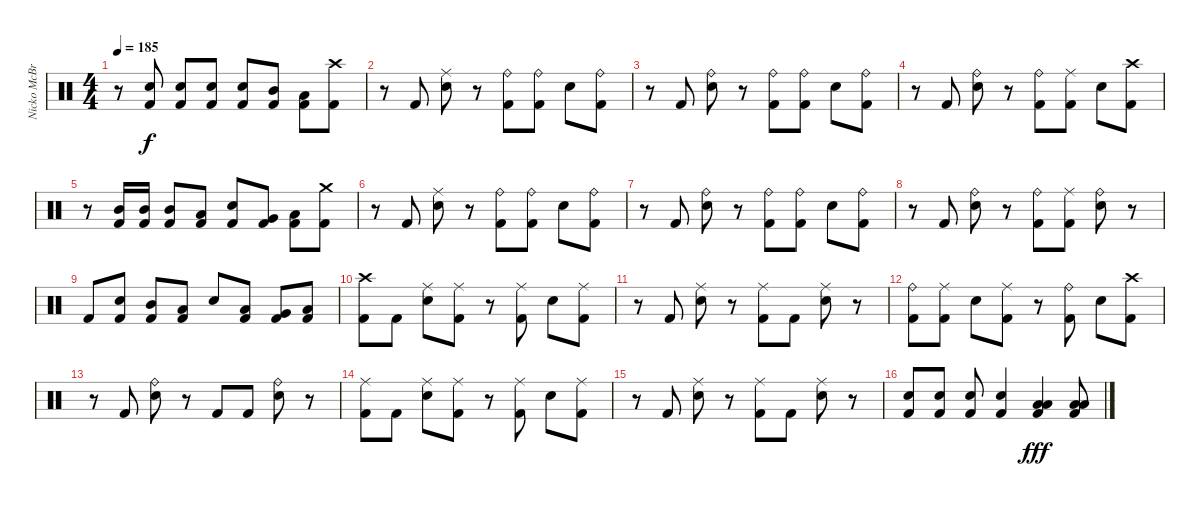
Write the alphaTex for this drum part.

\track ("Nicko McBrain" "Nicko McBr") {instrument percussion}
\staff {score}
\articulation defaults
\ts (4 4)
\tempo 185
\clef neutral
\ks c
r.8{dy f} ("Snare (hit) 2" "Kick (hit) 2").8 ("Snare (hit) 2" "Kick (hit) 2").8 ("Snare (hit) 2" "Kick (hit) 2").8 ("Snare (hit) 2" "Kick (hit) 2").8 ("Mid Tom (hit)" "Kick (hit) 2").8 ("Low Tom (hit)" "Kick (hit) 2").8 ("Crash high (hit)" "Kick (hit) 2").8 |
r.8 "Kick (hit) 2".8 ("Ride (middle)" "Snare (hit) 2").8 r.8 ("Ride (bell)" "Kick (hit) 2").8 ("Ride (bell)" "Kick (hit) 2").8 "Snare (hit) 2".8 ("Ride (bell)" "Kick (hit) 2").8 |
r.8 "Kick (hit) 2".8 ("Ride (bell)" "Snare (hit) 2").8 r.8 ("Ride (bell)" "Kick (hit) 2").8 ("Ride (bell)" "Kick (hit) 2").8 "Snare (hit) 2".8 ("Ride (bell)" "Kick (hit) 2").8 |
r.8 "Kick (hit) 2".8 ("Ride (bell)" "Snare (hit) 2").8 r.8 ("Ride (bell)" "Kick (hit) 2").8 ("Ride (middle)" "Kick (hit) 2").8 "Snare (hit) 2".8 ("Crash high (hit)" "Kick (hit) 2").8 |
r.8 ("Mid Tom (hit)" "Kick (hit) 2").16 ("Mid Tom (hit)" "Kick (hit) 2").16 ("Mid Tom (hit)" "Kick (hit) 2").8 ("Low Tom (hit)" "Kick (hit) 2").8 ("Snare (hit) 2" "Kick (hit) 2").8 ("Very Low Tom (hit)" "Kick (hit) 2").8 ("Low Floor Tom (hit)" "Kick (hit) 2").8 ("Crash medium (hit)" "Kick (hit) 2").8 |
r.8 "Kick (hit) 2".8 ("Ride (middle)" "Snare (hit) 2").8 r.8 ("Ride (bell)" "Kick (hit) 2").8 ("Ride (bell)" "Kick (hit) 2").8 "Snare (hit) 2".8 ("Ride (bell)" "Kick (hit) 2").8 |
r.8 "Kick (hit) 2".8 ("Ride (bell)" "Snare (hit) 2").8 r.8 ("Ride (bell)" "Kick (hit) 2").8 ("Ride (bell)" "Kick (hit) 2").8 "Snare (hit) 2".8 ("Ride (bell)" "Kick (hit) 2").8 |
r.8 "Kick (hit) 2".8 ("Ride (bell)" "Snare (hit) 2").8 r.8 ("Ride (bell)" "Kick (hit) 2").8 ("Ride (middle)" "Kick (hit) 2").8 ("Ride (bell)" "Snare (hit) 2").8 r.8 |
"Kick (hit) 2".8 ("Snare (hit) 2" "Kick (hit) 2").8 ("Mid Tom (hit)" "Kick (hit) 2").8 ("Low Tom (hit)" "Kick (hit) 2").8 "Snare (hit) 2".8 ("Low Tom (hit)" "Kick (hit) 2").8 ("Very Low Tom (hit)" "Kick (hit) 2").8 ("Low Floor Tom (hit)" "Kick (hit) 2").8 |
("Crash high (hit)" "Kick (hit) 2").8 "Kick (hit) 2".8 ("Ride (middle)" "Snare (hit) 2").8 ("Ride (middle)" "Kick (hit) 2").8 r.8 ("Ride (middle)" "Kick (hit) 2").8 "Snare (hit) 2".8 ("Ride (middle)" "Kick (hit) 2").8 |
r.8 "Kick (hit) 2".8 ("Ride (middle)" "Snare (hit) 2").8 r.8 ("Ride (middle)" "Kick (hit) 2").8 "Kick (hit) 2".8 ("Ride (middle)" "Snare (hit) 2").8 r.8 |
("Ride (bell)" "Kick (hit) 2").8 ("Ride (middle)" "Kick (hit) 2").8 "Snare (hit) 2".8 ("Ride (middle)" "Kick (hit) 2").8 r.8 ("Ride (bell)" "Kick (hit) 2").8 "Snare (hit) 2".8 ("Crash high (hit)" "Kick (hit) 2").8 |
r.8 "Kick (hit) 2".8 ("Ride (bell)" "Snare (hit) 2").8 r.8 "Kick (hit) 2".8 "Kick (hit) 2".8 ("Ride (bell)" "Snare (hit) 2").8 r.8 |
("Ride (middle)" "Kick (hit) 2").8 "Kick (hit) 2".8 ("Ride (middle)" "Snare (hit) 2").8 ("Ride (middle)" "Kick (hit) 2").8 r.8 ("Ride (middle)" "Kick (hit) 2").8 "Snare (hit) 2".8 ("Ride (middle)" "Kick (hit) 2").8 |
r.8 "Kick (hit) 2".8 ("Ride (middle)" "Snare (hit) 2").8 r.8 ("Ride (middle)" "Kick (hit) 2").8 "Kick (hit) 2".8 ("Ride (middle)" "Snare (hit) 2").8 r.8 |
("Snare (hit) 2" "Kick (hit) 2").8 ("Snare (hit) 2" "Kick (hit) 2").8 ("Snare (hit) 2" "Kick (hit) 2").8 ("Snare (hit) 2" "Kick (hit) 2").4 ("Low Tom (hit)" "Low Floor Tom (hit)" "Kick (hit) 2").4{dy fff} ("Low Tom (hit)" "Low Floor Tom (hit)" "Kick (hit) 2").8
